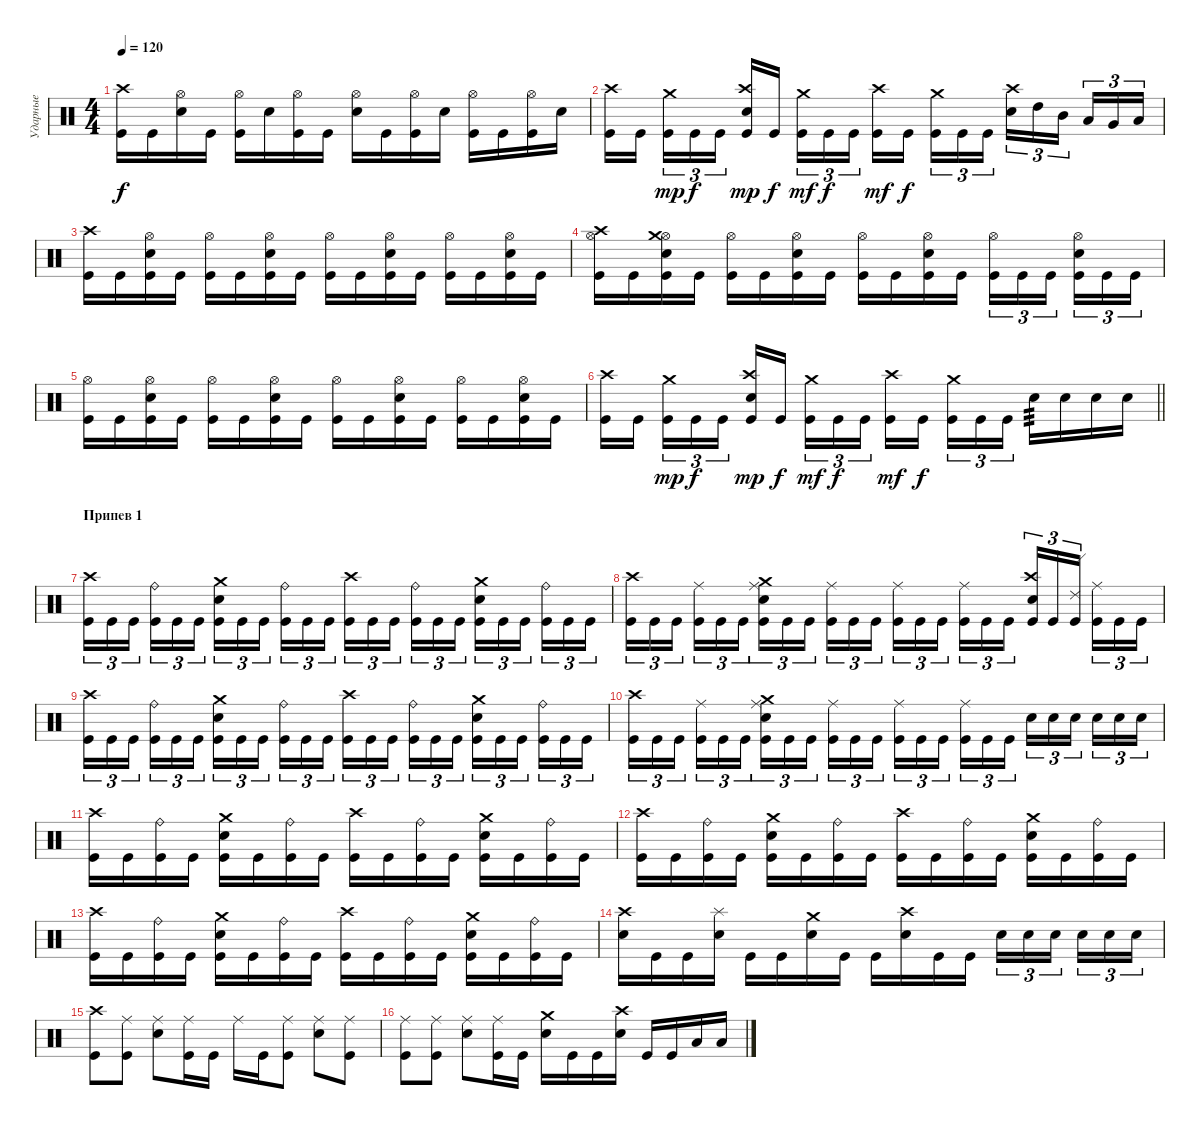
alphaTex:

\track ("Ударные" "Ударные") {instrument percussion}
\staff {score}
\articulation defaults
\ts (4 4)
\tempo 120
\clef neutral
\ks c
("Kick (hit)" "Crash high (hit)").16{dy f} "Kick (hit)".16 ("Snare (hit) 2" "Hi-Hat (open)").16 "Kick (hit)".16 ("Kick (hit)" "Hi-Hat (open)").16 "Snare (hit) 2".16 ("Kick (hit)" "Hi-Hat (open)").16 "Kick (hit)".16 ("Snare (hit) 2" "Hi-Hat (open)").16 "Kick (hit)".16 ("Kick (hit)" "Hi-Hat (open)").16 "Snare (hit) 2".16 ("Kick (hit)" "Hi-Hat (open)").16 "Kick (hit)".16 ("Kick (hit)" "Hi-Hat (open)").16 "Snare (hit) 2".16 |
("Kick (hit)" "Crash high (hit)").16 "Kick (hit)".16 ("Kick (hit)" "Crash medium (hit)").16{tu (3 2) dy mp} "Kick (hit)".16{tu (3 2) dy f} "Kick (hit)".16{tu (3 2)} ("Kick (hit)" "Snare (hit) 2" "Crash high (hit)").16{dy mp} "Kick (hit)".16{dy f} ("Kick (hit)" "Crash medium (hit)").16{tu (3 2) dy mf} "Kick (hit)".16{tu (3 2) dy f} "Kick (hit)".16{tu (3 2)} ("Kick (hit)" "Crash high (hit)").16{dy mf} "Kick (hit)".16{dy f} ("Kick (hit)" "Crash medium (hit)").16{tu (3 2)} "Kick (hit)".16{tu (3 2)} "Kick (hit)".16{tu (3 2)} ("Snare (hit) 2" "Crash high (hit)").16{tu (3 2)} "High Tom (hit)".16{tu (3 2)} "Mid Tom (hit)".16{tu (3 2)} "Low Tom (hit)".16{tu (3 2)} "Very Low Tom (hit)".16{tu (3 2)} "Low Floor Tom (hit)".16{tu (3 2)} |
("Crash high (hit)" "Kick (hit)").16 "Kick (hit)".16 ("Hi-Hat (open)" "Snare (hit) 2" "Kick (hit)").16 "Kick (hit)".16 ("Hi-Hat (open)" "Kick (hit)").16 "Kick (hit)".16 ("Hi-Hat (open)" "Snare (hit) 2" "Kick (hit)").16 "Kick (hit)".16 ("Hi-Hat (open)" "Kick (hit)").16 "Kick (hit)".16 ("Hi-Hat (open)" "Snare (hit) 2" "Kick (hit)").16 "Kick (hit)".16 ("Hi-Hat (open)" "Kick (hit)").16 "Kick (hit)".16 ("Hi-Hat (open)" "Snare (hit) 2" "Kick (hit)").16 "Kick (hit)".16 |
("Hi-Hat (open)" "Crash high (hit)" "Kick (hit)").16 "Kick (hit)".16 ("Hi-Hat (open)" "Snare (hit) 2" "Crash medium (hit)" "Kick (hit)").16 "Kick (hit)".16 ("Hi-Hat (open)" "Kick (hit)").16 "Kick (hit)".16 ("Hi-Hat (open)" "Snare (hit) 2" "Kick (hit)").16 "Kick (hit)".16 ("Hi-Hat (open)" "Kick (hit)").16 "Kick (hit)".16 ("Hi-Hat (open)" "Snare (hit) 2" "Kick (hit)").16 "Kick (hit)".16 ("Kick (hit)" "Hi-Hat (open)").16{tu (3 2)} "Kick (hit)".16{tu (3 2)} "Kick (hit)".16{tu (3 2)} ("Kick (hit)" "Snare (hit) 2" "Hi-Hat (open)").16{tu (3 2)} "Kick (hit)".16{tu (3 2)} "Kick (hit)".16{tu (3 2)} |
("Hi-Hat (open)" "Kick (hit)").16 "Kick (hit)".16 ("Hi-Hat (open)" "Snare (hit) 2" "Kick (hit)").16 "Kick (hit)".16 ("Hi-Hat (open)" "Kick (hit)").16 "Kick (hit)".16 ("Hi-Hat (open)" "Snare (hit) 2" "Kick (hit)").16 "Kick (hit)".16 ("Hi-Hat (open)" "Kick (hit)").16 "Kick (hit)".16 ("Hi-Hat (open)" "Snare (hit) 2" "Kick (hit)").16 "Kick (hit)".16 ("Hi-Hat (open)" "Kick (hit)").16 "Kick (hit)".16 ("Hi-Hat (open)" "Snare (hit) 2" "Kick (hit)").16 "Kick (hit)".16 |
\barLineRight lightlight
("Kick (hit)" "Crash high (hit)").16 "Kick (hit)".16 ("Kick (hit)" "Crash medium (hit)").16{tu (3 2) dy mp} "Kick (hit)".16{tu (3 2) dy f} "Kick (hit)".16{tu (3 2)} ("Kick (hit)" "Snare (hit) 2" "Crash high (hit)").16{dy mp} "Kick (hit)".16{dy f} ("Kick (hit)" "Crash medium (hit)").16{tu (3 2) dy mf} "Kick (hit)".16{tu (3 2) dy f} "Kick (hit)".16{tu (3 2)} ("Kick (hit)" "Crash high (hit)").16{dy mf} "Kick (hit)".16{dy f} ("Kick (hit)" "Crash medium (hit)").16{tu (3 2)} "Kick (hit)".16{tu (3 2)} "Kick (hit)".16{tu (3 2)} "Snare (hit) 2".16{tp 3} "Snare (hit) 2".16 "Snare (hit) 2".16 "Snare (hit) 2".16 |
\section ("" "Припев 1")
("Kick (hit)" "Crash high (hit)").16{tu (3 2)} "Kick (hit)".16{tu (3 2)} "Kick (hit)".16{tu (3 2)} ("Kick (hit)" "Ride (bell)").16{tu (3 2)} "Kick (hit)".16{tu (3 2)} "Kick (hit)".16{tu (3 2)} ("Kick (hit)" "Snare (hit) 2" "Crash medium (hit)").16{tu (3 2)} "Kick (hit)".16{tu (3 2)} "Kick (hit)".16{tu (3 2)} ("Kick (hit)" "Ride (bell)").16{tu (3 2)} "Kick (hit)".16{tu (3 2)} "Kick (hit)".16{tu (3 2)} ("Kick (hit)" "Crash high (hit)").16{tu (3 2)} "Kick (hit)".16{tu (3 2)} "Kick (hit)".16{tu (3 2)} ("Kick (hit)" "Ride (bell)").16{tu (3 2)} "Kick (hit)".16{tu (3 2)} "Kick (hit)".16{tu (3 2)} ("Kick (hit)" "Snare (hit) 2" "Crash medium (hit)").16{tu (3 2)} "Kick (hit)".16{tu (3 2)} "Kick (hit)".16{tu (3 2)} ("Kick (hit)" "Ride (bell)").16{tu (3 2)} "Kick (hit)".16{tu (3 2)} "Kick (hit)".16{tu (3 2)} |
("Kick (hit)" "Crash high (hit)").16{tu (3 2)} "Kick (hit)".16{tu (3 2)} "Kick (hit)".16{tu (3 2)} ("Kick (hit)" "Ride (middle)").16{tu (3 2)} "Kick (hit)".16{tu (3 2)} "Kick (hit)".16{tu (3 2)} ("Kick (hit)" "Snare (hit) 2" "Ride (middle)" "Crash medium (hit)").16{tu (3 2)} "Kick (hit)".16{tu (3 2)} "Kick (hit)".16{tu (3 2)} ("Kick (hit)" "Ride (middle)").16{tu (3 2)} "Kick (hit)".16{tu (3 2)} "Kick (hit)".16{tu (3 2)} ("Kick (hit)" "Ride (middle)").16{tu (3 2)} "Kick (hit)".16{tu (3 2)} "Kick (hit)".16{tu (3 2)} ("Kick (hit)" "Ride (middle)").16{tu (3 2)} "Kick (hit)".16{tu (3 2)} "Kick (hit)".16{tu (3 2)} ("Kick (hit)" "Snare (hit) 2" "Crash high (hit)").16{tu (3 2)} "Kick (hit)".16{tu (3 2)} ("Kick (hit)" "Ride (edge) 2").16{tu (3 2)} ("Kick (hit)" "Ride (middle)").16{tu (3 2)} "Kick (hit)".16{tu (3 2)} "Kick (hit)".16{tu (3 2)} |
("Kick (hit)" "Crash high (hit)").16{tu (3 2)} "Kick (hit)".16{tu (3 2)} "Kick (hit)".16{tu (3 2)} ("Kick (hit)" "Ride (bell)").16{tu (3 2)} "Kick (hit)".16{tu (3 2)} "Kick (hit)".16{tu (3 2)} ("Kick (hit)" "Snare (hit) 2" "Crash medium (hit)").16{tu (3 2)} "Kick (hit)".16{tu (3 2)} "Kick (hit)".16{tu (3 2)} ("Kick (hit)" "Ride (bell)").16{tu (3 2)} "Kick (hit)".16{tu (3 2)} "Kick (hit)".16{tu (3 2)} ("Kick (hit)" "Crash high (hit)").16{tu (3 2)} "Kick (hit)".16{tu (3 2)} "Kick (hit)".16{tu (3 2)} ("Kick (hit)" "Ride (bell)").16{tu (3 2)} "Kick (hit)".16{tu (3 2)} "Kick (hit)".16{tu (3 2)} ("Kick (hit)" "Snare (hit) 2" "Crash medium (hit)").16{tu (3 2)} "Kick (hit)".16{tu (3 2)} "Kick (hit)".16{tu (3 2)} ("Kick (hit)" "Ride (bell)").16{tu (3 2)} "Kick (hit)".16{tu (3 2)} "Kick (hit)".16{tu (3 2)} |
("Kick (hit)" "Crash high (hit)").16{tu (3 2)} "Kick (hit)".16{tu (3 2)} "Kick (hit)".16{tu (3 2)} ("Kick (hit)" "Ride (middle)").16{tu (3 2)} "Kick (hit)".16{tu (3 2)} "Kick (hit)".16{tu (3 2)} ("Kick (hit)" "Snare (hit) 2" "Ride (middle)" "Crash medium (hit)").16{tu (3 2)} "Kick (hit)".16{tu (3 2)} "Kick (hit)".16{tu (3 2)} ("Kick (hit)" "Ride (middle)").16{tu (3 2)} "Kick (hit)".16{tu (3 2)} "Kick (hit)".16{tu (3 2)} ("Kick (hit)" "Ride (middle)").16{tu (3 2)} "Kick (hit)".16{tu (3 2)} "Kick (hit)".16{tu (3 2)} ("Kick (hit)" "Ride (middle)").16{tu (3 2)} "Kick (hit)".16{tu (3 2)} "Kick (hit)".16{tu (3 2)} "Snare (hit) 2".16{tu (3 2)} "Snare (hit) 2".16{tu (3 2)} "Snare (hit) 2".16{tu (3 2)} "Snare (hit) 2".16{tu (3 2)} "Snare (hit) 2".16{tu (3 2)} "Snare (hit) 2".16{tu (3 2)} |
("Kick (hit)" "Crash high (hit)").16 "Kick (hit)".16 ("Kick (hit)" "Ride (bell)").16 "Kick (hit)".16 ("Kick (hit)" "Snare (hit) 2" "Crash medium (hit)").16 "Kick (hit)".16 ("Kick (hit)" "Ride (bell)").16 "Kick (hit)".16 ("Kick (hit)" "Crash high (hit)").16 "Kick (hit)".16 ("Kick (hit)" "Ride (bell)").16 "Kick (hit)".16 ("Kick (hit)" "Snare (hit) 2" "Crash medium (hit)").16 "Kick (hit)".16 ("Kick (hit)" "Ride (bell)").16 "Kick (hit)".16 |
("Kick (hit)" "Crash high (hit)").16 "Kick (hit)".16 ("Kick (hit)" "Ride (bell)").16 "Kick (hit)".16 ("Kick (hit)" "Snare (hit) 2" "Crash medium (hit)").16 "Kick (hit)".16 ("Kick (hit)" "Ride (bell)").16 "Kick (hit)".16 ("Kick (hit)" "Crash high (hit)").16 "Kick (hit)".16 ("Kick (hit)" "Ride (bell)").16 "Kick (hit)".16 ("Kick (hit)" "Snare (hit) 2" "Crash medium (hit)").16 "Kick (hit)".16 ("Kick (hit)" "Ride (bell)").16 "Kick (hit)".16 |
("Kick (hit)" "Crash high (hit)").16 "Kick (hit)".16 ("Kick (hit)" "Ride (bell)").16 "Kick (hit)".16 ("Kick (hit)" "Snare (hit) 2" "Crash medium (hit)").16 "Kick (hit)".16 ("Kick (hit)" "Ride (bell)").16 "Kick (hit)".16 ("Kick (hit)" "Crash high (hit)").16 "Kick (hit)".16 ("Kick (hit)" "Ride (bell)").16 "Kick (hit)".16 ("Kick (hit)" "Snare (hit) 2" "Crash medium (hit)").16 "Kick (hit)".16 ("Kick (hit)" "Ride (bell)").16 "Kick (hit)".16 |
("Snare (hit) 2" "Crash high (hit)").16 "Kick (hit)".16 "Kick (hit)".16 ("Snare (hit) 2" "Splash (hit)").16 "Kick (hit)".16 "Kick (hit)".16 ("Snare (hit) 2" "Crash medium (hit)").16 "Kick (hit)".16 "Kick (hit)".16 ("Snare (hit) 2" "Crash high (hit)").16 "Kick (hit)".16 "Kick (hit)".16 "Snare (hit) 2".16{tu (3 2)} "Snare (hit) 2".16{tu (3 2)} "Snare (hit) 2".16{tu (3 2)} "Snare (hit) 2".16{tu (3 2)} "Snare (hit) 2".16{tu (3 2)} "Snare (hit) 2".16{tu (3 2)} |
("Kick (hit)" "Crash high (hit)").8 ("Kick (hit)" "Ride (middle)").8 ("Snare (hit) 2" "Ride (middle)").8 ("Kick (hit)" "Ride (middle)").16 "Kick (hit)".16 "Ride (middle)".16 "Kick (hit)".16 ("Kick (hit)" "Ride (middle)").8 ("Snare (hit) 2" "Ride (middle)").8 ("Kick (hit)" "Ride (middle)").8 |
("Kick (hit)" "Ride (middle)").8 ("Kick (hit)" "Ride (middle)").8 ("Snare (hit) 2" "Ride (middle)").8 ("Kick (hit)" "Ride (middle)").16 "Kick (hit)".16 ("Crash medium (hit)" "Snare (hit) 2").16 "Kick (hit)".16 "Kick (hit)".16 ("Crash high (hit)" "Snare (hit) 2").16 "Kick (hit)".16 "Kick (hit)".16 "Low Tom (hit)".16 "Low Tom (hit)".16
